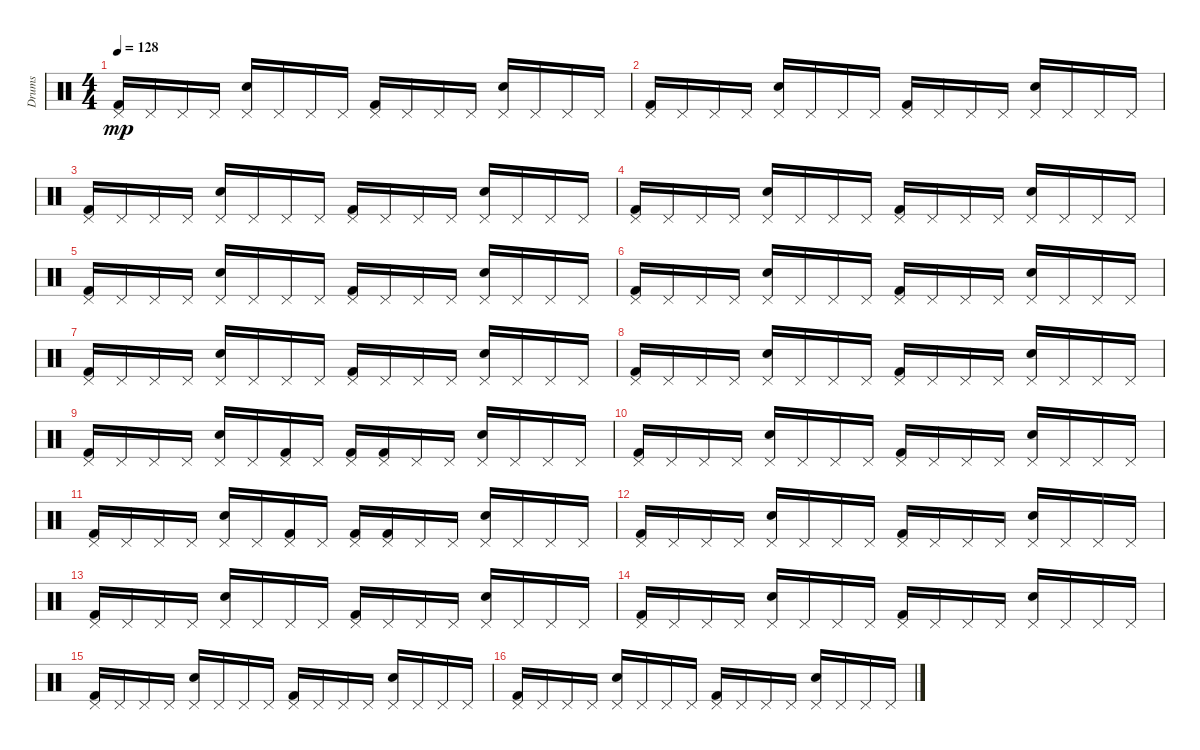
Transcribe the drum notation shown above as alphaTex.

\track ("Drums" "Drums") {instrument percussion}
\staff {score}
\articulation defaults
\ts (4 4)
\tempo 128
\clef neutral
\ks c
("Kick (hit) 2" "Pedal Hi-Hat (hit)").16{dy mp} "Pedal Hi-Hat (hit)".16 "Pedal Hi-Hat (hit)".16 "Pedal Hi-Hat (hit)".16 ("Pedal Hi-Hat (hit)" "Electric Snare (hit)").16 "Pedal Hi-Hat (hit)".16 "Pedal Hi-Hat (hit)".16 "Pedal Hi-Hat (hit)".16 ("Pedal Hi-Hat (hit)" "Kick (hit) 2").16 "Pedal Hi-Hat (hit)".16 "Pedal Hi-Hat (hit)".16 "Pedal Hi-Hat (hit)".16 ("Electric Snare (hit)" "Pedal Hi-Hat (hit)").16 "Pedal Hi-Hat (hit)".16 "Pedal Hi-Hat (hit)".16 "Pedal Hi-Hat (hit)".16 |
("Pedal Hi-Hat (hit)" "Kick (hit) 2").16 "Pedal Hi-Hat (hit)".16 "Pedal Hi-Hat (hit)".16 "Pedal Hi-Hat (hit)".16 ("Pedal Hi-Hat (hit)" "Electric Snare (hit)").16 "Pedal Hi-Hat (hit)".16 "Pedal Hi-Hat (hit)".16 "Pedal Hi-Hat (hit)".16 ("Pedal Hi-Hat (hit)" "Kick (hit) 2").16 "Pedal Hi-Hat (hit)".16 "Pedal Hi-Hat (hit)".16 "Pedal Hi-Hat (hit)".16 ("Electric Snare (hit)" "Pedal Hi-Hat (hit)").16 "Pedal Hi-Hat (hit)".16 "Pedal Hi-Hat (hit)".16 "Pedal Hi-Hat (hit)".16 |
("Kick (hit) 2" "Pedal Hi-Hat (hit)").16 "Pedal Hi-Hat (hit)".16 "Pedal Hi-Hat (hit)".16 "Pedal Hi-Hat (hit)".16 ("Electric Snare (hit)" "Pedal Hi-Hat (hit)").16 "Pedal Hi-Hat (hit)".16 "Pedal Hi-Hat (hit)".16 "Pedal Hi-Hat (hit)".16 ("Pedal Hi-Hat (hit)" "Kick (hit) 2").16 "Pedal Hi-Hat (hit)".16 "Pedal Hi-Hat (hit)".16 "Pedal Hi-Hat (hit)".16 ("Electric Snare (hit)" "Pedal Hi-Hat (hit)").16 "Pedal Hi-Hat (hit)".16 "Pedal Hi-Hat (hit)".16 "Pedal Hi-Hat (hit)".16 |
("Pedal Hi-Hat (hit)" "Kick (hit) 2").16 "Pedal Hi-Hat (hit)".16 "Pedal Hi-Hat (hit)".16 "Pedal Hi-Hat (hit)".16 ("Electric Snare (hit)" "Pedal Hi-Hat (hit)").16 "Pedal Hi-Hat (hit)".16 "Pedal Hi-Hat (hit)".16 "Pedal Hi-Hat (hit)".16 ("Kick (hit) 2" "Pedal Hi-Hat (hit)").16 "Pedal Hi-Hat (hit)".16 "Pedal Hi-Hat (hit)".16 "Pedal Hi-Hat (hit)".16 ("Pedal Hi-Hat (hit)" "Electric Snare (hit)").16 "Pedal Hi-Hat (hit)".16 "Pedal Hi-Hat (hit)".16 "Pedal Hi-Hat (hit)".16 |
("Pedal Hi-Hat (hit)" "Kick (hit) 2").16 "Pedal Hi-Hat (hit)".16 "Pedal Hi-Hat (hit)".16 "Pedal Hi-Hat (hit)".16 ("Electric Snare (hit)" "Pedal Hi-Hat (hit)").16 "Pedal Hi-Hat (hit)".16 "Pedal Hi-Hat (hit)".16 "Pedal Hi-Hat (hit)".16 ("Kick (hit) 2" "Pedal Hi-Hat (hit)").16 "Pedal Hi-Hat (hit)".16 "Pedal Hi-Hat (hit)".16 "Pedal Hi-Hat (hit)".16 ("Electric Snare (hit)" "Pedal Hi-Hat (hit)").16 "Pedal Hi-Hat (hit)".16 "Pedal Hi-Hat (hit)".16 "Pedal Hi-Hat (hit)".16 |
("Pedal Hi-Hat (hit)" "Kick (hit) 2").16 "Pedal Hi-Hat (hit)".16 "Pedal Hi-Hat (hit)".16 "Pedal Hi-Hat (hit)".16 ("Electric Snare (hit)" "Pedal Hi-Hat (hit)").16 "Pedal Hi-Hat (hit)".16 "Pedal Hi-Hat (hit)".16 "Pedal Hi-Hat (hit)".16 ("Kick (hit) 2" "Pedal Hi-Hat (hit)").16 "Pedal Hi-Hat (hit)".16 "Pedal Hi-Hat (hit)".16 "Pedal Hi-Hat (hit)".16 ("Electric Snare (hit)" "Pedal Hi-Hat (hit)").16 "Pedal Hi-Hat (hit)".16 "Pedal Hi-Hat (hit)".16 "Pedal Hi-Hat (hit)".16 |
("Pedal Hi-Hat (hit)" "Kick (hit) 2").16 "Pedal Hi-Hat (hit)".16 "Pedal Hi-Hat (hit)".16 "Pedal Hi-Hat (hit)".16 ("Electric Snare (hit)" "Pedal Hi-Hat (hit)").16 "Pedal Hi-Hat (hit)".16 "Pedal Hi-Hat (hit)".16 "Pedal Hi-Hat (hit)".16 ("Pedal Hi-Hat (hit)" "Kick (hit) 2").16 "Pedal Hi-Hat (hit)".16 "Pedal Hi-Hat (hit)".16 "Pedal Hi-Hat (hit)".16 ("Pedal Hi-Hat (hit)" "Electric Snare (hit)").16 "Pedal Hi-Hat (hit)".16 "Pedal Hi-Hat (hit)".16 "Pedal Hi-Hat (hit)".16 |
("Pedal Hi-Hat (hit)" "Kick (hit) 2").16 "Pedal Hi-Hat (hit)".16 "Pedal Hi-Hat (hit)".16 "Pedal Hi-Hat (hit)".16 ("Pedal Hi-Hat (hit)" "Electric Snare (hit)").16 "Pedal Hi-Hat (hit)".16 "Pedal Hi-Hat (hit)".16 "Pedal Hi-Hat (hit)".16 ("Kick (hit) 2" "Pedal Hi-Hat (hit)").16 "Pedal Hi-Hat (hit)".16 "Pedal Hi-Hat (hit)".16 "Pedal Hi-Hat (hit)".16 ("Pedal Hi-Hat (hit)" "Electric Snare (hit)").16 "Pedal Hi-Hat (hit)".16 "Pedal Hi-Hat (hit)".16 "Pedal Hi-Hat (hit)".16 |
("Kick (hit) 2" "Pedal Hi-Hat (hit)").16 "Pedal Hi-Hat (hit)".16 "Pedal Hi-Hat (hit)".16 "Pedal Hi-Hat (hit)".16 ("Electric Snare (hit)" "Pedal Hi-Hat (hit)").16 "Pedal Hi-Hat (hit)".16 ("Pedal Hi-Hat (hit)" "Kick (hit) 2").16 "Pedal Hi-Hat (hit)".16 ("Pedal Hi-Hat (hit)" "Kick (hit) 2").16 ("Kick (hit) 2" "Pedal Hi-Hat (hit)").16 "Pedal Hi-Hat (hit)".16 "Pedal Hi-Hat (hit)".16 ("Pedal Hi-Hat (hit)" "Electric Snare (hit)").16 "Pedal Hi-Hat (hit)".16 "Pedal Hi-Hat (hit)".16 "Pedal Hi-Hat (hit)".16 |
("Pedal Hi-Hat (hit)" "Kick (hit) 2").16 "Pedal Hi-Hat (hit)".16 "Pedal Hi-Hat (hit)".16 "Pedal Hi-Hat (hit)".16 ("Electric Snare (hit)" "Pedal Hi-Hat (hit)").16 "Pedal Hi-Hat (hit)".16 "Pedal Hi-Hat (hit)".16 "Pedal Hi-Hat (hit)".16 ("Kick (hit) 2" "Pedal Hi-Hat (hit)").16 "Pedal Hi-Hat (hit)".16 "Pedal Hi-Hat (hit)".16 "Pedal Hi-Hat (hit)".16 ("Pedal Hi-Hat (hit)" "Electric Snare (hit)").16 "Pedal Hi-Hat (hit)".16 "Pedal Hi-Hat (hit)".16 "Pedal Hi-Hat (hit)".16 |
("Pedal Hi-Hat (hit)" "Kick (hit) 2").16 "Pedal Hi-Hat (hit)".16 "Pedal Hi-Hat (hit)".16 "Pedal Hi-Hat (hit)".16 ("Pedal Hi-Hat (hit)" "Electric Snare (hit)").16 "Pedal Hi-Hat (hit)".16 ("Kick (hit) 2" "Pedal Hi-Hat (hit)").16 "Pedal Hi-Hat (hit)".16 ("Kick (hit) 2" "Pedal Hi-Hat (hit)").16 ("Pedal Hi-Hat (hit)" "Kick (hit) 2").16 "Pedal Hi-Hat (hit)".16 "Pedal Hi-Hat (hit)".16 ("Pedal Hi-Hat (hit)" "Electric Snare (hit)").16 "Pedal Hi-Hat (hit)".16 "Pedal Hi-Hat (hit)".16 "Pedal Hi-Hat (hit)".16 |
("Pedal Hi-Hat (hit)" "Kick (hit) 2").16 "Pedal Hi-Hat (hit)".16 "Pedal Hi-Hat (hit)".16 "Pedal Hi-Hat (hit)".16 ("Electric Snare (hit)" "Pedal Hi-Hat (hit)").16 "Pedal Hi-Hat (hit)".16 "Pedal Hi-Hat (hit)".16 "Pedal Hi-Hat (hit)".16 ("Pedal Hi-Hat (hit)" "Kick (hit) 2").16 "Pedal Hi-Hat (hit)".16 "Pedal Hi-Hat (hit)".16 "Pedal Hi-Hat (hit)".16 ("Electric Snare (hit)" "Pedal Hi-Hat (hit)").16 "Pedal Hi-Hat (hit)".16 "Pedal Hi-Hat (hit)".16 "Pedal Hi-Hat (hit)".16 |
("Pedal Hi-Hat (hit)" "Kick (hit) 2").16 "Pedal Hi-Hat (hit)".16 "Pedal Hi-Hat (hit)".16 "Pedal Hi-Hat (hit)".16 ("Electric Snare (hit)" "Pedal Hi-Hat (hit)").16 "Pedal Hi-Hat (hit)".16 "Pedal Hi-Hat (hit)".16 "Pedal Hi-Hat (hit)".16 ("Pedal Hi-Hat (hit)" "Kick (hit) 2").16 "Pedal Hi-Hat (hit)".16 "Pedal Hi-Hat (hit)".16 "Pedal Hi-Hat (hit)".16 ("Electric Snare (hit)" "Pedal Hi-Hat (hit)").16 "Pedal Hi-Hat (hit)".16 "Pedal Hi-Hat (hit)".16 "Pedal Hi-Hat (hit)".16 |
("Kick (hit) 2" "Pedal Hi-Hat (hit)").16 "Pedal Hi-Hat (hit)".16 "Pedal Hi-Hat (hit)".16 "Pedal Hi-Hat (hit)".16 ("Pedal Hi-Hat (hit)" "Electric Snare (hit)").16 "Pedal Hi-Hat (hit)".16 "Pedal Hi-Hat (hit)".16 "Pedal Hi-Hat (hit)".16 ("Pedal Hi-Hat (hit)" "Kick (hit) 2").16 "Pedal Hi-Hat (hit)".16 "Pedal Hi-Hat (hit)".16 "Pedal Hi-Hat (hit)".16 ("Pedal Hi-Hat (hit)" "Electric Snare (hit)").16 "Pedal Hi-Hat (hit)".16 "Pedal Hi-Hat (hit)".16 "Pedal Hi-Hat (hit)".16 |
("Pedal Hi-Hat (hit)" "Kick (hit) 2").16 "Pedal Hi-Hat (hit)".16 "Pedal Hi-Hat (hit)".16 "Pedal Hi-Hat (hit)".16 ("Electric Snare (hit)" "Pedal Hi-Hat (hit)").16 "Pedal Hi-Hat (hit)".16 "Pedal Hi-Hat (hit)".16 "Pedal Hi-Hat (hit)".16 ("Pedal Hi-Hat (hit)" "Kick (hit) 2").16 "Pedal Hi-Hat (hit)".16 "Pedal Hi-Hat (hit)".16 "Pedal Hi-Hat (hit)".16 ("Electric Snare (hit)" "Pedal Hi-Hat (hit)").16 "Pedal Hi-Hat (hit)".16 "Pedal Hi-Hat (hit)".16 "Pedal Hi-Hat (hit)".16 |
("Kick (hit) 2" "Pedal Hi-Hat (hit)").16 "Pedal Hi-Hat (hit)".16 "Pedal Hi-Hat (hit)".16 "Pedal Hi-Hat (hit)".16 ("Electric Snare (hit)" "Pedal Hi-Hat (hit)").16 "Pedal Hi-Hat (hit)".16 "Pedal Hi-Hat (hit)".16 "Pedal Hi-Hat (hit)".16 ("Kick (hit) 2" "Pedal Hi-Hat (hit)").16 "Pedal Hi-Hat (hit)".16 "Pedal Hi-Hat (hit)".16 "Pedal Hi-Hat (hit)".16 ("Pedal Hi-Hat (hit)" "Electric Snare (hit)").16 "Pedal Hi-Hat (hit)".16 "Pedal Hi-Hat (hit)".16 "Pedal Hi-Hat (hit)".16
